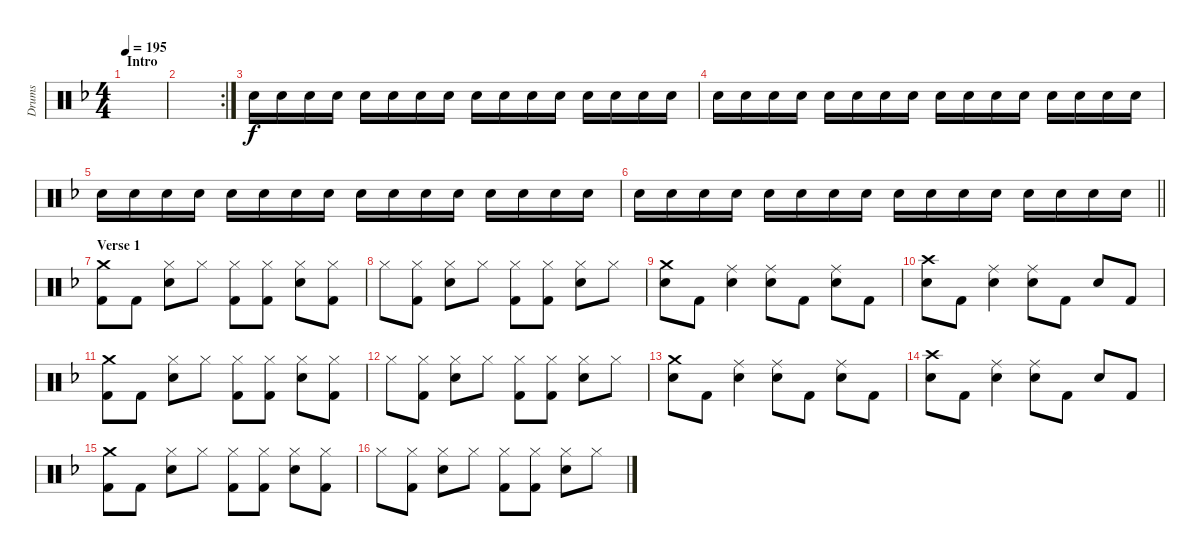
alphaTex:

\track ("Drums" "Drums") {instrument percussion}
\staff {score}
\articulation defaults
\ts (4 4)
\section ("" "Intro")
\tempo 195
\clef neutral
\ks f
|
\rc 2
|
"Electric Snare (hit)".16 "Electric Snare (hit)".16 "Electric Snare (hit)".16 "Electric Snare (hit)".16 "Electric Snare (hit)".16 "Electric Snare (hit)".16 "Electric Snare (hit)".16 "Electric Snare (hit)".16 "Electric Snare (hit)".16 "Electric Snare (hit)".16 "Electric Snare (hit)".16 "Electric Snare (hit)".16 "Electric Snare (hit)".16 "Electric Snare (hit)".16 "Electric Snare (hit)".16 "Electric Snare (hit)".16 |
"Electric Snare (hit)".16 "Electric Snare (hit)".16 "Electric Snare (hit)".16 "Electric Snare (hit)".16 "Electric Snare (hit)".16 "Electric Snare (hit)".16 "Electric Snare (hit)".16 "Electric Snare (hit)".16 "Electric Snare (hit)".16 "Electric Snare (hit)".16 "Electric Snare (hit)".16 "Electric Snare (hit)".16 "Electric Snare (hit)".16 "Electric Snare (hit)".16 "Electric Snare (hit)".16 "Electric Snare (hit)".16 |
"Electric Snare (hit)".16 "Electric Snare (hit)".16 "Electric Snare (hit)".16 "Electric Snare (hit)".16 "Electric Snare (hit)".16 "Electric Snare (hit)".16 "Electric Snare (hit)".16 "Electric Snare (hit)".16 "Electric Snare (hit)".16 "Electric Snare (hit)".16 "Electric Snare (hit)".16 "Electric Snare (hit)".16 "Electric Snare (hit)".16 "Electric Snare (hit)".16 "Electric Snare (hit)".16 "Electric Snare (hit)".16 |
\barLineRight lightlight "Electric Snare (hit)".16 "Electric Snare (hit)".16 "Electric Snare (hit)".16 "Electric Snare (hit)".16 "Electric Snare (hit)".16 "Electric Snare (hit)".16 "Electric Snare (hit)".16 "Electric Snare (hit)".16 "Electric Snare (hit)".16 "Electric Snare (hit)".16 "Electric Snare (hit)".16 "Electric Snare (hit)".16 "Electric Snare (hit)".16 "Electric Snare (hit)".16 "Electric Snare (hit)".16 "Electric Snare (hit)".16
|
\section ("" "Verse 1")
("Crash medium (hit)" "Kick (hit) 2").8 "Kick (hit) 2".8 ("Hi-Hat (closed)" "Electric Snare (hit)").8 "Hi-Hat (closed)".8 ("Hi-Hat (closed)" "Kick (hit) 2").8 ("Hi-Hat (closed)" "Kick (hit) 2").8 ("Hi-Hat (closed)" "Electric Snare (hit)").8 ("Hi-Hat (closed)" "Kick (hit) 2").8 |
"Hi-Hat (closed)".8 ("Hi-Hat (closed)" "Kick (hit) 2").8 ("Hi-Hat (closed)" "Electric Snare (hit)").8 "Hi-Hat (closed)".8 ("Hi-Hat (closed)" "Kick (hit) 2").8 ("Hi-Hat (closed)" "Kick (hit) 2").8 ("Hi-Hat (closed)" "Electric Snare (hit)").8 "Hi-Hat (closed)".8 |
("Crash medium (hit)" "Electric Snare (hit)").8 "Kick (hit) 2".8 ("Ride (middle)" "Electric Snare (hit)").4 ("Ride (middle)" "Electric Snare (hit)").8 "Kick (hit) 2".8 ("Ride (middle)" "Electric Snare (hit)").8 "Kick (hit) 2".8 |
("Crash high (hit)" "Electric Snare (hit)").8 "Kick (hit) 2".8 ("Ride (middle)" "Electric Snare (hit)").4 ("Ride (middle)" "Electric Snare (hit)").8 "Kick (hit) 2".8 "Electric Snare (hit)".8 "Kick (hit) 2".8 |
("Crash medium (hit)" "Kick (hit) 2").8 "Kick (hit) 2".8 ("Hi-Hat (closed)" "Electric Snare (hit)").8 "Hi-Hat (closed)".8 ("Hi-Hat (closed)" "Kick (hit) 2").8 ("Hi-Hat (closed)" "Kick (hit) 2").8 ("Hi-Hat (closed)" "Electric Snare (hit)").8 ("Hi-Hat (closed)" "Kick (hit) 2").8 |
"Hi-Hat (closed)".8 ("Hi-Hat (closed)" "Kick (hit) 2").8 ("Hi-Hat (closed)" "Electric Snare (hit)").8 "Hi-Hat (closed)".8 ("Hi-Hat (closed)" "Kick (hit) 2").8 ("Hi-Hat (closed)" "Kick (hit) 2").8 ("Hi-Hat (closed)" "Electric Snare (hit)").8 "Hi-Hat (closed)".8 |
("Crash medium (hit)" "Electric Snare (hit)").8 "Kick (hit) 2".8 ("Ride (middle)" "Electric Snare (hit)").4 ("Ride (middle)" "Electric Snare (hit)").8 "Kick (hit) 2".8 ("Ride (middle)" "Electric Snare (hit)").8 "Kick (hit) 2".8 |
("Crash high (hit)" "Electric Snare (hit)").8 "Kick (hit) 2".8 ("Ride (middle)" "Electric Snare (hit)").4 ("Ride (middle)" "Electric Snare (hit)").8 "Kick (hit) 2".8 "Electric Snare (hit)".8 "Kick (hit) 2".8 |
("Crash medium (hit)" "Kick (hit) 2").8 "Kick (hit) 2".8 ("Hi-Hat (closed)" "Electric Snare (hit)").8 "Hi-Hat (closed)".8 ("Hi-Hat (closed)" "Kick (hit) 2").8 ("Hi-Hat (closed)" "Kick (hit) 2").8 ("Hi-Hat (closed)" "Electric Snare (hit)").8 ("Hi-Hat (closed)" "Kick (hit) 2").8 |
"Hi-Hat (closed)".8 ("Hi-Hat (closed)" "Kick (hit) 2").8 ("Hi-Hat (closed)" "Electric Snare (hit)").8 "Hi-Hat (closed)".8 ("Hi-Hat (closed)" "Kick (hit) 2").8 ("Hi-Hat (closed)" "Kick (hit) 2").8 ("Hi-Hat (closed)" "Electric Snare (hit)").8 "Hi-Hat (closed)".8
